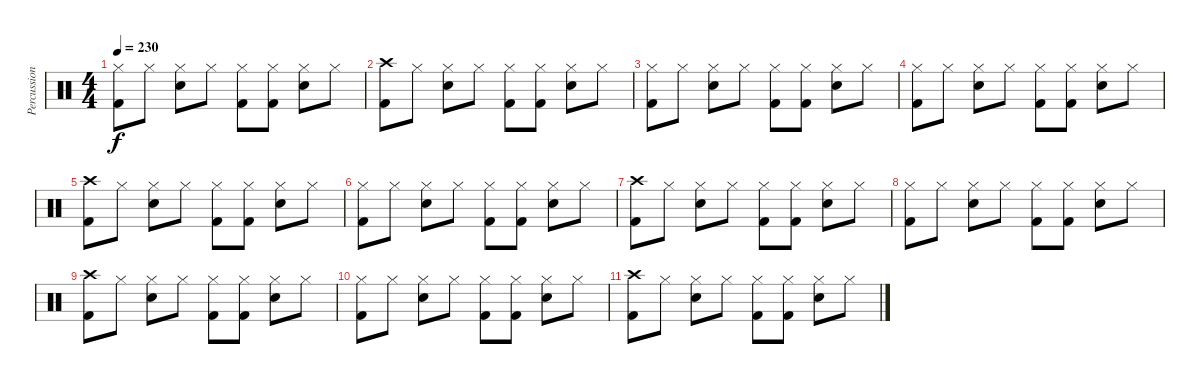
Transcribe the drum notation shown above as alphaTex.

\track ("Percussions" "Percussion") {instrument percussion}
\staff {score}
\articulation defaults
\ts (4 4)
\tempo 230
\clef neutral
\ks c
("Hi-Hat (closed)" "Kick (hit) 2").8{dy f} "Hi-Hat (closed)".8 ("Hi-Hat (closed)" "Electric Snare (hit)").8 "Hi-Hat (closed)".8 ("Hi-Hat (closed)" "Kick (hit) 2").8 ("Hi-Hat (closed)" "Kick (hit) 2").8 ("Hi-Hat (closed)" "Electric Snare (hit)").8 "Hi-Hat (closed)".8 |
("Crash high (hit)" "Kick (hit) 2").8 "Hi-Hat (closed)".8 ("Hi-Hat (closed)" "Electric Snare (hit)").8 "Hi-Hat (closed)".8 ("Hi-Hat (closed)" "Kick (hit) 2").8 ("Hi-Hat (closed)" "Kick (hit) 2").8 ("Hi-Hat (closed)" "Electric Snare (hit)").8 "Hi-Hat (closed)".8 |
("Hi-Hat (closed)" "Kick (hit) 2").8 "Hi-Hat (closed)".8 ("Hi-Hat (closed)" "Electric Snare (hit)").8 "Hi-Hat (closed)".8 ("Hi-Hat (closed)" "Kick (hit) 2").8 ("Hi-Hat (closed)" "Kick (hit) 2").8 ("Hi-Hat (closed)" "Electric Snare (hit)").8 "Hi-Hat (closed)".8 |
("Hi-Hat (closed)" "Kick (hit) 2").8 "Hi-Hat (closed)".8 ("Hi-Hat (closed)" "Electric Snare (hit)").8 "Hi-Hat (closed)".8 ("Hi-Hat (closed)" "Kick (hit) 2").8 ("Hi-Hat (closed)" "Kick (hit) 2").8 ("Hi-Hat (closed)" "Electric Snare (hit)").8 "Hi-Hat (closed)".8 |
("Crash high (hit)" "Kick (hit) 2").8 "Hi-Hat (closed)".8 ("Hi-Hat (closed)" "Electric Snare (hit)").8 "Hi-Hat (closed)".8 ("Hi-Hat (closed)" "Kick (hit) 2").8 ("Hi-Hat (closed)" "Kick (hit) 2").8 ("Hi-Hat (closed)" "Electric Snare (hit)").8 "Hi-Hat (closed)".8 |
("Hi-Hat (closed)" "Kick (hit) 2").8 "Hi-Hat (closed)".8 ("Hi-Hat (closed)" "Electric Snare (hit)").8 "Hi-Hat (closed)".8 ("Hi-Hat (closed)" "Kick (hit) 2").8 ("Hi-Hat (closed)" "Kick (hit) 2").8 ("Hi-Hat (closed)" "Electric Snare (hit)").8 "Hi-Hat (closed)".8 |
("Crash high (hit)" "Kick (hit) 2").8 "Hi-Hat (closed)".8 ("Hi-Hat (closed)" "Electric Snare (hit)").8 "Hi-Hat (closed)".8 ("Hi-Hat (closed)" "Kick (hit) 2").8 ("Hi-Hat (closed)" "Kick (hit) 2").8 ("Hi-Hat (closed)" "Electric Snare (hit)").8 "Hi-Hat (closed)".8 |
("Hi-Hat (closed)" "Kick (hit) 2").8 "Hi-Hat (closed)".8 ("Hi-Hat (closed)" "Electric Snare (hit)").8 "Hi-Hat (closed)".8 ("Hi-Hat (closed)" "Kick (hit) 2").8 ("Hi-Hat (closed)" "Kick (hit) 2").8 ("Hi-Hat (closed)" "Electric Snare (hit)").8 "Hi-Hat (closed)".8 |
("Crash high (hit)" "Kick (hit) 2").8 "Hi-Hat (closed)".8 ("Hi-Hat (closed)" "Electric Snare (hit)").8 "Hi-Hat (closed)".8 ("Hi-Hat (closed)" "Kick (hit) 2").8 ("Hi-Hat (closed)" "Kick (hit) 2").8 ("Hi-Hat (closed)" "Electric Snare (hit)").8 "Hi-Hat (closed)".8 |
("Hi-Hat (closed)" "Kick (hit) 2").8 "Hi-Hat (closed)".8 ("Hi-Hat (closed)" "Electric Snare (hit)").8 "Hi-Hat (closed)".8 ("Hi-Hat (closed)" "Kick (hit) 2").8 ("Hi-Hat (closed)" "Kick (hit) 2").8 ("Hi-Hat (closed)" "Electric Snare (hit)").8 "Hi-Hat (closed)".8 |
("Crash high (hit)" "Kick (hit) 2").8 "Hi-Hat (closed)".8 ("Hi-Hat (closed)" "Electric Snare (hit)").8 "Hi-Hat (closed)".8 ("Hi-Hat (closed)" "Kick (hit) 2").8 ("Hi-Hat (closed)" "Kick (hit) 2").8 ("Hi-Hat (closed)" "Electric Snare (hit)").8 "Hi-Hat (closed)".8
